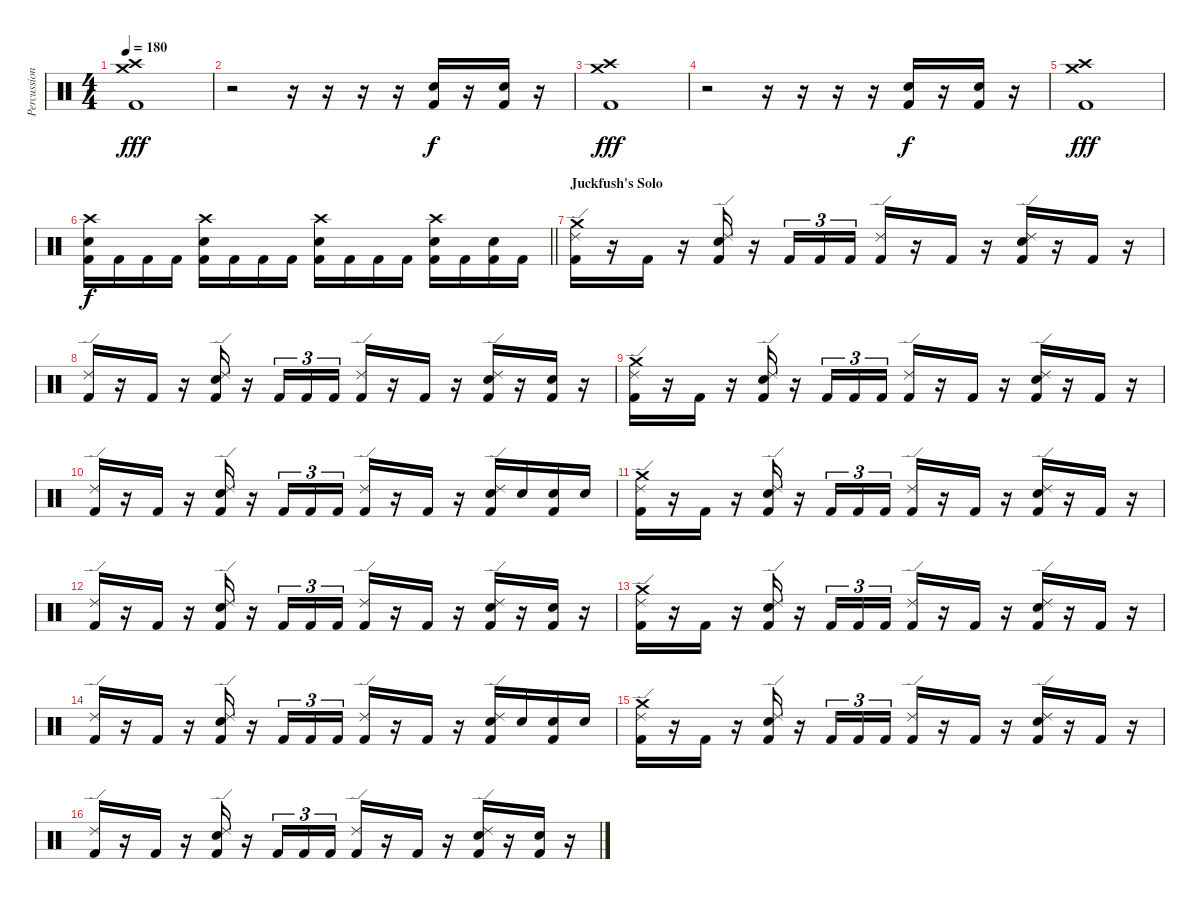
\track ("Percussion" "Percussion") {instrument percussion}
\staff {score}
\articulation defaults
\ts (4 4)
\tempo 180
\clef neutral
\ks c
("Crash high (hit)" "Crash medium (hit)" "Kick (hit) 2").1{dy fff} |
r.2 r.16 r.16 r.16 r.16 ("Snare (hit) 2" "Kick (hit) 2").16{dy f} r.16 ("Snare (hit) 2" "Kick (hit) 2").16 r.16 |
("Crash high (hit)" "Crash medium (hit)" "Kick (hit) 2").1{dy fff} |
r.2 r.16 r.16 r.16 r.16 ("Snare (hit) 2" "Kick (hit) 2").16{dy f} r.16 ("Snare (hit) 2" "Kick (hit) 2").16 r.16 |
("Crash high (hit)" "Crash medium (hit)" "Kick (hit) 2").1{dy fff} |
\barLineRight lightlight
("Crash high (hit)" "Snare (hit) 2" "Kick (hit) 2").16{dy f} "Kick (hit) 2".16 "Kick (hit) 2".16 "Kick (hit) 2".16 ("Crash high (hit)" "Snare (hit) 2" "Kick (hit) 2").16 "Kick (hit) 2".16 "Kick (hit) 2".16 "Kick (hit) 2".16 ("Crash high (hit)" "Snare (hit) 2" "Kick (hit) 2").16 "Kick (hit) 2".16 "Kick (hit) 2".16 "Kick (hit) 2".16 ("Crash high (hit)" "Snare (hit) 2" "Kick (hit) 2").16 "Kick (hit) 2".16 ("Snare (hit) 2" "Kick (hit) 2").16 "Kick (hit) 2".16 |
\section ("" "Juckfush's Solo")
("Crash medium (hit)" "Ride (edge) 2" "Kick (hit) 2").16 r.16 "Kick (hit) 2".16 r.16 ("Ride (edge) 2" "Snare (hit) 2" "Kick (hit) 2").16 r.16 "Kick (hit) 2".16{tu (3 2)} "Kick (hit) 2".16{tu (3 2)} "Kick (hit) 2".16{tu (3 2)} ("Ride (edge) 2" "Kick (hit) 2").16 r.16 "Kick (hit) 2".16 r.16 ("Ride (edge) 2" "Snare (hit) 2" "Kick (hit) 2").16 r.16 "Kick (hit) 2".16 r.16 |
("Ride (edge) 2" "Kick (hit) 2").16 r.16 "Kick (hit) 2".16 r.16 ("Ride (edge) 2" "Snare (hit) 2" "Kick (hit) 2").16 r.16 "Kick (hit) 2".16{tu (3 2)} "Kick (hit) 2".16{tu (3 2)} "Kick (hit) 2".16{tu (3 2)} ("Ride (edge) 2" "Kick (hit) 2").16 r.16 "Kick (hit) 2".16 r.16 ("Ride (edge) 2" "Snare (hit) 2" "Kick (hit) 2").16 r.16 ("Snare (hit) 2" "Kick (hit) 2").16 r.16 |
("Crash medium (hit)" "Ride (edge) 2" "Kick (hit) 2").16 r.16 "Kick (hit) 2".16 r.16 ("Ride (edge) 2" "Snare (hit) 2" "Kick (hit) 2").16 r.16 "Kick (hit) 2".16{tu (3 2)} "Kick (hit) 2".16{tu (3 2)} "Kick (hit) 2".16{tu (3 2)} ("Ride (edge) 2" "Kick (hit) 2").16 r.16 "Kick (hit) 2".16 r.16 ("Ride (edge) 2" "Snare (hit) 2" "Kick (hit) 2").16 r.16 "Kick (hit) 2".16 r.16 |
("Ride (edge) 2" "Kick (hit) 2").16 r.16 "Kick (hit) 2".16 r.16 ("Ride (edge) 2" "Snare (hit) 2" "Kick (hit) 2").16 r.16 "Kick (hit) 2".16{tu (3 2)} "Kick (hit) 2".16{tu (3 2)} "Kick (hit) 2".16{tu (3 2)} ("Ride (edge) 2" "Kick (hit) 2").16 r.16 "Kick (hit) 2".16 r.16 ("Ride (edge) 2" "Snare (hit) 2" "Kick (hit) 2").16 "Snare (hit) 2".16 ("Snare (hit) 2" "Kick (hit) 2").16 "Snare (hit) 2".16 |
("Crash medium (hit)" "Ride (edge) 2" "Kick (hit) 2").16 r.16 "Kick (hit) 2".16 r.16 ("Ride (edge) 2" "Snare (hit) 2" "Kick (hit) 2").16 r.16 "Kick (hit) 2".16{tu (3 2)} "Kick (hit) 2".16{tu (3 2)} "Kick (hit) 2".16{tu (3 2)} ("Ride (edge) 2" "Kick (hit) 2").16 r.16 "Kick (hit) 2".16 r.16 ("Ride (edge) 2" "Snare (hit) 2" "Kick (hit) 2").16 r.16 "Kick (hit) 2".16 r.16 |
("Ride (edge) 2" "Kick (hit) 2").16 r.16 "Kick (hit) 2".16 r.16 ("Ride (edge) 2" "Snare (hit) 2" "Kick (hit) 2").16 r.16 "Kick (hit) 2".16{tu (3 2)} "Kick (hit) 2".16{tu (3 2)} "Kick (hit) 2".16{tu (3 2)} ("Ride (edge) 2" "Kick (hit) 2").16 r.16 "Kick (hit) 2".16 r.16 ("Ride (edge) 2" "Snare (hit) 2" "Kick (hit) 2").16 r.16 ("Snare (hit) 2" "Kick (hit) 2").16 r.16 |
("Crash medium (hit)" "Ride (edge) 2" "Kick (hit) 2").16 r.16 "Kick (hit) 2".16 r.16 ("Ride (edge) 2" "Snare (hit) 2" "Kick (hit) 2").16 r.16 "Kick (hit) 2".16{tu (3 2)} "Kick (hit) 2".16{tu (3 2)} "Kick (hit) 2".16{tu (3 2)} ("Ride (edge) 2" "Kick (hit) 2").16 r.16 "Kick (hit) 2".16 r.16 ("Ride (edge) 2" "Snare (hit) 2" "Kick (hit) 2").16 r.16 "Kick (hit) 2".16 r.16 |
("Ride (edge) 2" "Kick (hit) 2").16 r.16 "Kick (hit) 2".16 r.16 ("Ride (edge) 2" "Snare (hit) 2" "Kick (hit) 2").16 r.16 "Kick (hit) 2".16{tu (3 2)} "Kick (hit) 2".16{tu (3 2)} "Kick (hit) 2".16{tu (3 2)} ("Ride (edge) 2" "Kick (hit) 2").16 r.16 "Kick (hit) 2".16 r.16 ("Ride (edge) 2" "Snare (hit) 2" "Kick (hit) 2").16 "Snare (hit) 2".16 ("Snare (hit) 2" "Kick (hit) 2").16 "Snare (hit) 2".16 |
("Crash medium (hit)" "Ride (edge) 2" "Kick (hit) 2").16 r.16 "Kick (hit) 2".16 r.16 ("Ride (edge) 2" "Snare (hit) 2" "Kick (hit) 2").16 r.16 "Kick (hit) 2".16{tu (3 2)} "Kick (hit) 2".16{tu (3 2)} "Kick (hit) 2".16{tu (3 2)} ("Ride (edge) 2" "Kick (hit) 2").16 r.16 "Kick (hit) 2".16 r.16 ("Ride (edge) 2" "Snare (hit) 2" "Kick (hit) 2").16 r.16 "Kick (hit) 2".16 r.16 |
("Ride (edge) 2" "Kick (hit) 2").16 r.16 "Kick (hit) 2".16 r.16 ("Ride (edge) 2" "Snare (hit) 2" "Kick (hit) 2").16 r.16 "Kick (hit) 2".16{tu (3 2)} "Kick (hit) 2".16{tu (3 2)} "Kick (hit) 2".16{tu (3 2)} ("Ride (edge) 2" "Kick (hit) 2").16 r.16 "Kick (hit) 2".16 r.16 ("Ride (edge) 2" "Snare (hit) 2" "Kick (hit) 2").16 r.16 ("Snare (hit) 2" "Kick (hit) 2").16 r.16
